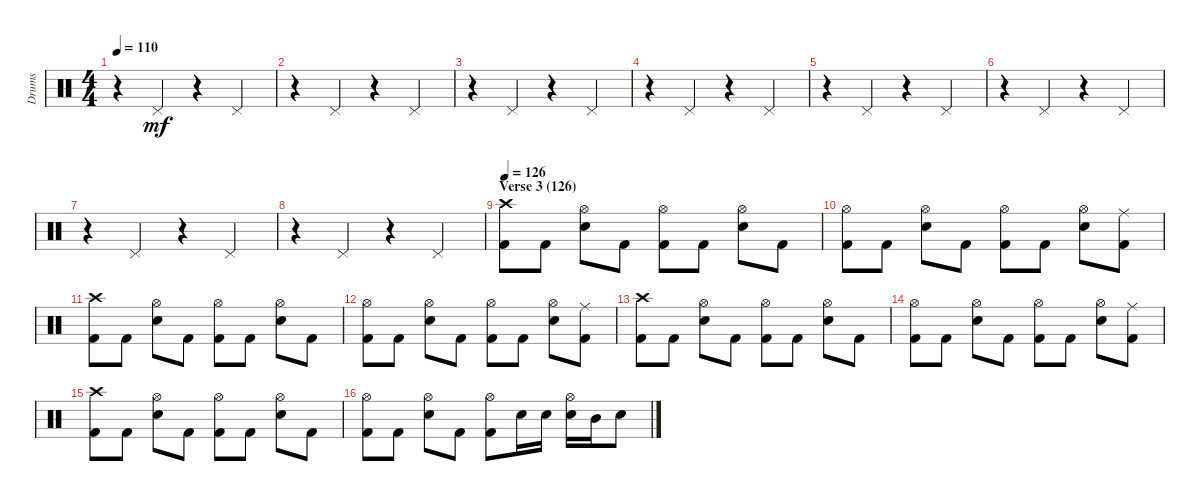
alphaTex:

\track ("Drums" "Drums") {instrument percussion}
\staff {score}
\articulation defaults
\ts (4 4)
\tempo 110
\clef neutral
\ks c
r.4{dy mf} "Pedal Hi-Hat (hit)".4 r.4 "Pedal Hi-Hat (hit)".4 |
r.4 "Pedal Hi-Hat (hit)".4 r.4 "Pedal Hi-Hat (hit)".4 |
r.4 "Pedal Hi-Hat (hit)".4 r.4 "Pedal Hi-Hat (hit)".4 |
r.4 "Pedal Hi-Hat (hit)".4 r.4 "Pedal Hi-Hat (hit)".4 |
r.4 "Pedal Hi-Hat (hit)".4 r.4 "Pedal Hi-Hat (hit)".4 |
r.4 "Pedal Hi-Hat (hit)".4 r.4 "Pedal Hi-Hat (hit)".4 |
r.4 "Pedal Hi-Hat (hit)".4 r.4 "Pedal Hi-Hat (hit)".4 |
r.4 "Pedal Hi-Hat (hit)".4 r.4 "Pedal Hi-Hat (hit)".4 |
\section ("" "Verse 3 (126)")
\tempo 126
("Crash high (hit)" "Kick (hit) 2").8 "Kick (hit) 2".8 ("Hi-Hat (open)" "Electric Snare (hit)").8 "Kick (hit) 2".8 ("Hi-Hat (open)" "Kick (hit) 2").8 "Kick (hit) 2".8 ("Hi-Hat (open)" "Electric Snare (hit)").8 "Kick (hit) 2".8 |
("Hi-Hat (open)" "Kick (hit) 2").8 "Kick (hit) 2".8 ("Hi-Hat (open)" "Electric Snare (hit)").8 "Kick (hit) 2".8 ("Hi-Hat (open)" "Kick (hit) 2").8 "Kick (hit) 2".8 ("Hi-Hat (open)" "Electric Snare (hit)").8 ("Ride (middle)" "Kick (hit) 2").8 |
("Crash high (hit)" "Kick (hit) 2").8 "Kick (hit) 2".8 ("Hi-Hat (open)" "Electric Snare (hit)").8 "Kick (hit) 2".8 ("Hi-Hat (open)" "Kick (hit) 2").8 "Kick (hit) 2".8 ("Hi-Hat (open)" "Electric Snare (hit)").8 "Kick (hit) 2".8 |
("Hi-Hat (open)" "Kick (hit) 2").8 "Kick (hit) 2".8 ("Hi-Hat (open)" "Electric Snare (hit)").8 "Kick (hit) 2".8 ("Hi-Hat (open)" "Kick (hit) 2").8 "Kick (hit) 2".8 ("Hi-Hat (open)" "Electric Snare (hit)").8 ("Ride (middle)" "Kick (hit) 2").8 |
("Crash high (hit)" "Kick (hit) 2").8 "Kick (hit) 2".8 ("Hi-Hat (open)" "Electric Snare (hit)").8 "Kick (hit) 2".8 ("Hi-Hat (open)" "Kick (hit) 2").8 "Kick (hit) 2".8 ("Hi-Hat (open)" "Electric Snare (hit)").8 "Kick (hit) 2".8 |
("Hi-Hat (open)" "Kick (hit) 2").8 "Kick (hit) 2".8 ("Hi-Hat (open)" "Electric Snare (hit)").8 "Kick (hit) 2".8 ("Hi-Hat (open)" "Kick (hit) 2").8 "Kick (hit) 2".8 ("Hi-Hat (open)" "Electric Snare (hit)").8 ("Ride (middle)" "Kick (hit) 2").8 |
("Crash high (hit)" "Kick (hit) 2").8 "Kick (hit) 2".8 ("Hi-Hat (open)" "Electric Snare (hit)").8 "Kick (hit) 2".8 ("Hi-Hat (open)" "Kick (hit) 2").8 "Kick (hit) 2".8 ("Hi-Hat (open)" "Electric Snare (hit)").8 "Kick (hit) 2".8 |
("Hi-Hat (open)" "Kick (hit) 2").8 "Kick (hit) 2".8 ("Hi-Hat (open)" "Electric Snare (hit)").8 "Kick (hit) 2".8 ("Hi-Hat (open)" "Kick (hit) 2").8 "Electric Snare (hit)".16 "Electric Snare (hit)".16 ("Hi-Hat (open)" "Electric Snare (hit)").16 "Mid Tom (hit)".16 "Electric Snare (hit)".8
